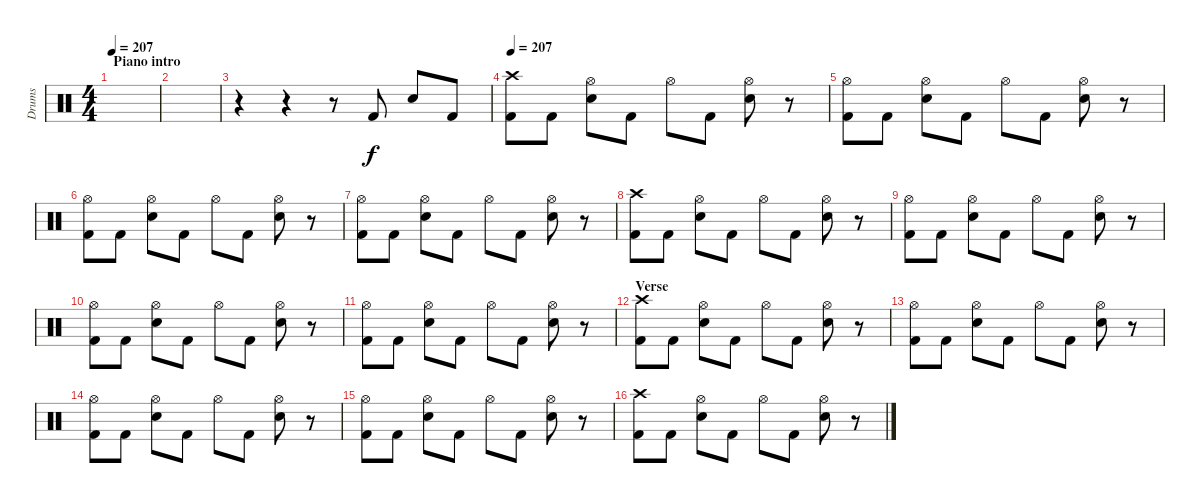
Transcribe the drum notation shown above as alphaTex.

\track ("Drums" "Drums") {instrument percussion}
\staff {score}
\articulation defaults
\ts (4 4)
\section ("" "Piano intro")
\tempo 207
\clef neutral
\ks c
|
|
r.4 r.4 r.8 "Kick (hit) 2".8 "Snare (hit) 2".8 "Kick (hit) 2".8 |
\tempo 207
("Crash high (hit)" "Kick (hit) 2").8 "Kick (hit) 2".8 ("Hi-Hat (open)" "Snare (hit) 2").8 "Kick (hit) 2".8 "Hi-Hat (open)".8 "Kick (hit) 2".8 ("Hi-Hat (open)" "Snare (hit) 2").8 r.8 |
("Hi-Hat (open)" "Kick (hit) 2").8 "Kick (hit) 2".8 ("Hi-Hat (open)" "Snare (hit) 2").8 "Kick (hit) 2".8 "Hi-Hat (open)".8 "Kick (hit) 2".8 ("Hi-Hat (open)" "Snare (hit) 2").8 r.8 |
("Hi-Hat (open)" "Kick (hit) 2").8 "Kick (hit) 2".8 ("Hi-Hat (open)" "Snare (hit) 2").8 "Kick (hit) 2".8 "Hi-Hat (open)".8 "Kick (hit) 2".8 ("Hi-Hat (open)" "Snare (hit) 2").8 r.8 |
("Hi-Hat (open)" "Kick (hit) 2").8 "Kick (hit) 2".8 ("Hi-Hat (open)" "Snare (hit) 2").8 "Kick (hit) 2".8 "Hi-Hat (open)".8 "Kick (hit) 2".8 ("Hi-Hat (open)" "Snare (hit) 2").8 r.8 |
("Crash high (hit)" "Kick (hit) 2").8 "Kick (hit) 2".8 ("Hi-Hat (open)" "Snare (hit) 2").8 "Kick (hit) 2".8 "Hi-Hat (open)".8 "Kick (hit) 2".8 ("Hi-Hat (open)" "Snare (hit) 2").8 r.8 |
("Hi-Hat (open)" "Kick (hit) 2").8 "Kick (hit) 2".8 ("Hi-Hat (open)" "Snare (hit) 2").8 "Kick (hit) 2".8 "Hi-Hat (open)".8 "Kick (hit) 2".8 ("Hi-Hat (open)" "Snare (hit) 2").8 r.8 |
("Hi-Hat (open)" "Kick (hit) 2").8 "Kick (hit) 2".8 ("Hi-Hat (open)" "Snare (hit) 2").8 "Kick (hit) 2".8 "Hi-Hat (open)".8 "Kick (hit) 2".8 ("Hi-Hat (open)" "Snare (hit) 2").8 r.8 |
("Hi-Hat (open)" "Kick (hit) 2").8 "Kick (hit) 2".8 ("Hi-Hat (open)" "Snare (hit) 2").8 "Kick (hit) 2".8 "Hi-Hat (open)".8 "Kick (hit) 2".8 ("Hi-Hat (open)" "Snare (hit) 2").8 r.8 |
\section ("" "Verse")
("Crash high (hit)" "Kick (hit) 2").8 "Kick (hit) 2".8 ("Hi-Hat (open)" "Snare (hit) 2").8 "Kick (hit) 2".8 "Hi-Hat (open)".8 "Kick (hit) 2".8 ("Hi-Hat (open)" "Snare (hit) 2").8 r.8 |
("Hi-Hat (open)" "Kick (hit) 2").8 "Kick (hit) 2".8 ("Hi-Hat (open)" "Snare (hit) 2").8 "Kick (hit) 2".8 "Hi-Hat (open)".8 "Kick (hit) 2".8 ("Hi-Hat (open)" "Snare (hit) 2").8 r.8 |
("Hi-Hat (open)" "Kick (hit) 2").8 "Kick (hit) 2".8 ("Hi-Hat (open)" "Snare (hit) 2").8 "Kick (hit) 2".8 "Hi-Hat (open)".8 "Kick (hit) 2".8 ("Hi-Hat (open)" "Snare (hit) 2").8 r.8 |
("Hi-Hat (open)" "Kick (hit) 2").8 "Kick (hit) 2".8 ("Hi-Hat (open)" "Snare (hit) 2").8 "Kick (hit) 2".8 "Hi-Hat (open)".8 "Kick (hit) 2".8 ("Hi-Hat (open)" "Snare (hit) 2").8 r.8 |
("Crash high (hit)" "Kick (hit) 2").8 "Kick (hit) 2".8 ("Hi-Hat (open)" "Snare (hit) 2").8 "Kick (hit) 2".8 "Hi-Hat (open)".8 "Kick (hit) 2".8 ("Hi-Hat (open)" "Snare (hit) 2").8 r.8
